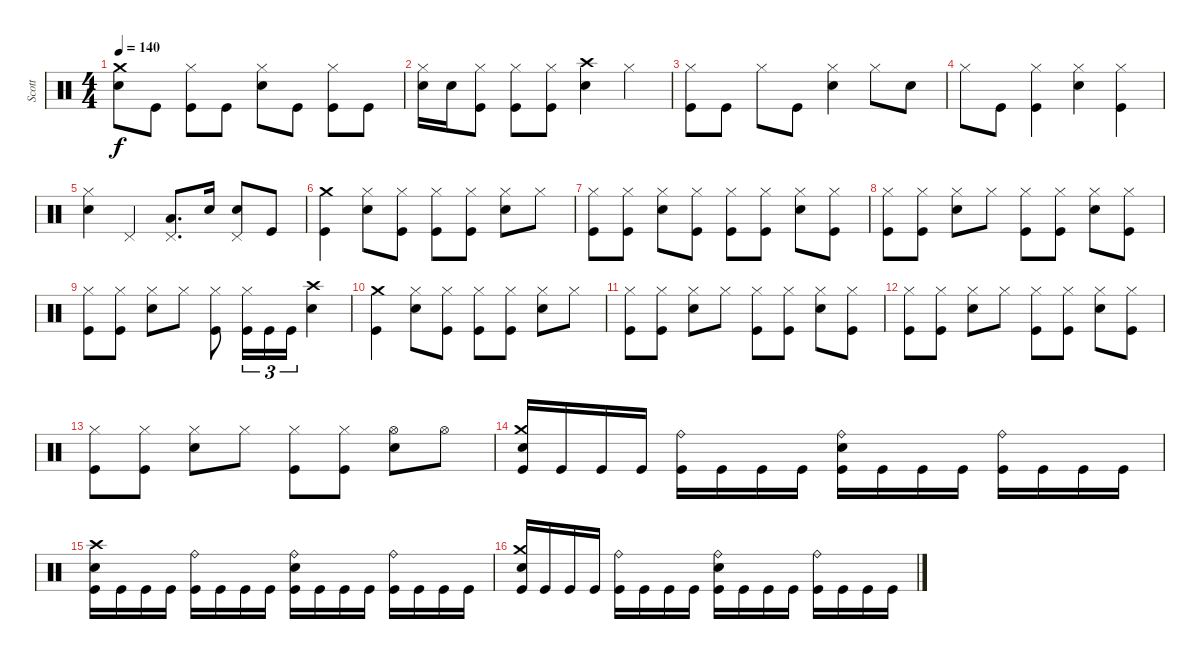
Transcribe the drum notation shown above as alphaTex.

\track ("Scott" "Scott") {instrument percussion}
\staff {score}
\articulation defaults
\ts (4 4)
\tempo 140
\clef neutral
\ks c
("Snare (hit) 2" "Crash medium (hit)").8{dy f} "Kick (hit)".8 ("Kick (hit)" "Hi-Hat (closed)").8 "Kick (hit)".8 ("Snare (hit) 2" "Hi-Hat (closed)").8 "Kick (hit)".8 ("Kick (hit)" "Hi-Hat (closed)").8 "Kick (hit)".8 |
("Snare (hit) 2" "Hi-Hat (closed)").16 "Snare (hit) 2".16 ("Kick (hit)" "Hi-Hat (closed)").8 ("Kick (hit)" "Hi-Hat (closed)").8 ("Kick (hit)" "Hi-Hat (closed)").8 ("Snare (hit) 2" "Crash high (hit)").4 "Hi-Hat (closed)".4 |
("Kick (hit)" "Hi-Hat (closed)").8 "Kick (hit)".8 "Hi-Hat (closed)".8 "Kick (hit)".8 ("Snare (hit) 2" "Hi-Hat (closed)").4 "Hi-Hat (closed)".8 "Snare (hit) 2".8 |
"Hi-Hat (closed)".8 "Kick (hit)".8 ("Kick (hit)" "Hi-Hat (closed)").4 ("Snare (hit) 2" "Hi-Hat (closed)").4 ("Kick (hit)" "Hi-Hat (closed)").4 |
("Snare (hit) 2" "Hi-Hat (closed)").4 "Pedal Hi-Hat (hit)".4 ("Low Tom (hit)" "Pedal Hi-Hat (hit)").8{d} "Snare (hit) 2".16 ("Snare (hit) 2" "Pedal Hi-Hat (hit)").8 "Kick (hit)".8 |
("Kick (hit)" "Crash medium (hit)").4 ("Snare (hit) 2" "Hi-Hat (closed)").8 ("Kick (hit)" "Hi-Hat (closed)").8 ("Kick (hit)" "Hi-Hat (closed)").8 ("Kick (hit)" "Hi-Hat (closed)").8 ("Snare (hit) 2" "Hi-Hat (closed)").8 "Hi-Hat (closed)".8 |
("Kick (hit)" "Hi-Hat (closed)").8 ("Kick (hit)" "Hi-Hat (closed)").8 ("Snare (hit) 2" "Hi-Hat (closed)").8 ("Kick (hit)" "Hi-Hat (closed)").8 ("Kick (hit)" "Hi-Hat (closed)").8 ("Kick (hit)" "Hi-Hat (closed)").8 ("Snare (hit) 2" "Hi-Hat (closed)").8 ("Kick (hit)" "Hi-Hat (closed)").8 |
("Kick (hit)" "Hi-Hat (closed)").8 ("Kick (hit)" "Hi-Hat (closed)").8 ("Snare (hit) 2" "Hi-Hat (closed)").8 "Hi-Hat (closed)".8 ("Kick (hit)" "Hi-Hat (closed)").8 ("Kick (hit)" "Hi-Hat (closed)").8 ("Snare (hit) 2" "Hi-Hat (closed)").8 ("Kick (hit)" "Hi-Hat (closed)").8 |
("Kick (hit)" "Hi-Hat (closed)").8 ("Kick (hit)" "Hi-Hat (closed)").8 ("Snare (hit) 2" "Hi-Hat (closed)").8 "Hi-Hat (closed)".8 ("Kick (hit)" "Hi-Hat (closed)").8 ("Kick (hit)" "Hi-Hat (closed)").16{tu (3 2)} "Kick (hit)".16{tu (3 2)} "Kick (hit)".16{tu (3 2)} ("Snare (hit) 2" "Crash high (hit)").4 |
("Kick (hit)" "Crash medium (hit)").4 ("Snare (hit) 2" "Hi-Hat (closed)").8 ("Kick (hit)" "Hi-Hat (closed)").8 ("Kick (hit)" "Hi-Hat (closed)").8 ("Kick (hit)" "Hi-Hat (closed)").8 ("Snare (hit) 2" "Hi-Hat (closed)").8 "Hi-Hat (closed)".8 |
("Kick (hit)" "Hi-Hat (closed)").8 ("Kick (hit)" "Hi-Hat (closed)").8 ("Snare (hit) 2" "Hi-Hat (closed)").8 "Hi-Hat (closed)".8 ("Kick (hit)" "Hi-Hat (closed)").8 ("Kick (hit)" "Hi-Hat (closed)").8 ("Snare (hit) 2" "Hi-Hat (closed)").8 ("Kick (hit)" "Hi-Hat (closed)").8 |
("Kick (hit)" "Hi-Hat (closed)").8 ("Kick (hit)" "Hi-Hat (closed)").8 ("Snare (hit) 2" "Hi-Hat (closed)").8 "Hi-Hat (closed)".8 ("Kick (hit)" "Hi-Hat (closed)").8 ("Kick (hit)" "Hi-Hat (closed)").8 ("Snare (hit) 2" "Hi-Hat (closed)").8 ("Kick (hit)" "Hi-Hat (closed)").8 |
("Kick (hit)" "Hi-Hat (closed)").8 ("Kick (hit)" "Hi-Hat (closed)").8 ("Snare (hit) 2" "Hi-Hat (closed)").8 "Hi-Hat (closed)".8 ("Kick (hit)" "Hi-Hat (closed)").8 ("Kick (hit)" "Hi-Hat (closed)").8 ("Snare (hit) 2" "Hi-Hat (open)").8 "Hi-Hat (open)".8 |
("Kick (hit)" "Snare (hit) 2" "Crash medium (hit)").16 "Kick (hit)".16 "Kick (hit)".16 "Kick (hit)".16 ("Kick (hit)" "Ride (bell)").16 "Kick (hit)".16 "Kick (hit)".16 "Kick (hit)".16 ("Kick (hit)" "Snare (hit) 2" "Ride (bell)").16 "Kick (hit)".16 "Kick (hit)".16 "Kick (hit)".16 ("Kick (hit)" "Ride (bell)").16 "Kick (hit)".16 "Kick (hit)".16 "Kick (hit)".16 |
("Kick (hit)" "Snare (hit) 2" "Crash high (hit)").16 "Kick (hit)".16 "Kick (hit)".16 "Kick (hit)".16 ("Kick (hit)" "Ride (bell)").16 "Kick (hit)".16 "Kick (hit)".16 "Kick (hit)".16 ("Kick (hit)" "Snare (hit) 2" "Ride (bell)").16 "Kick (hit)".16 "Kick (hit)".16 "Kick (hit)".16 ("Kick (hit)" "Ride (bell)").16 "Kick (hit)".16 "Kick (hit)".16 "Kick (hit)".16 |
("Kick (hit)" "Snare (hit) 2" "Crash medium (hit)").16 "Kick (hit)".16 "Kick (hit)".16 "Kick (hit)".16 ("Kick (hit)" "Ride (bell)").16 "Kick (hit)".16 "Kick (hit)".16 "Kick (hit)".16 ("Kick (hit)" "Snare (hit) 2" "Ride (bell)").16 "Kick (hit)".16 "Kick (hit)".16 "Kick (hit)".16 ("Kick (hit)" "Ride (bell)").16 "Kick (hit)".16 "Kick (hit)".16 "Kick (hit)".16
